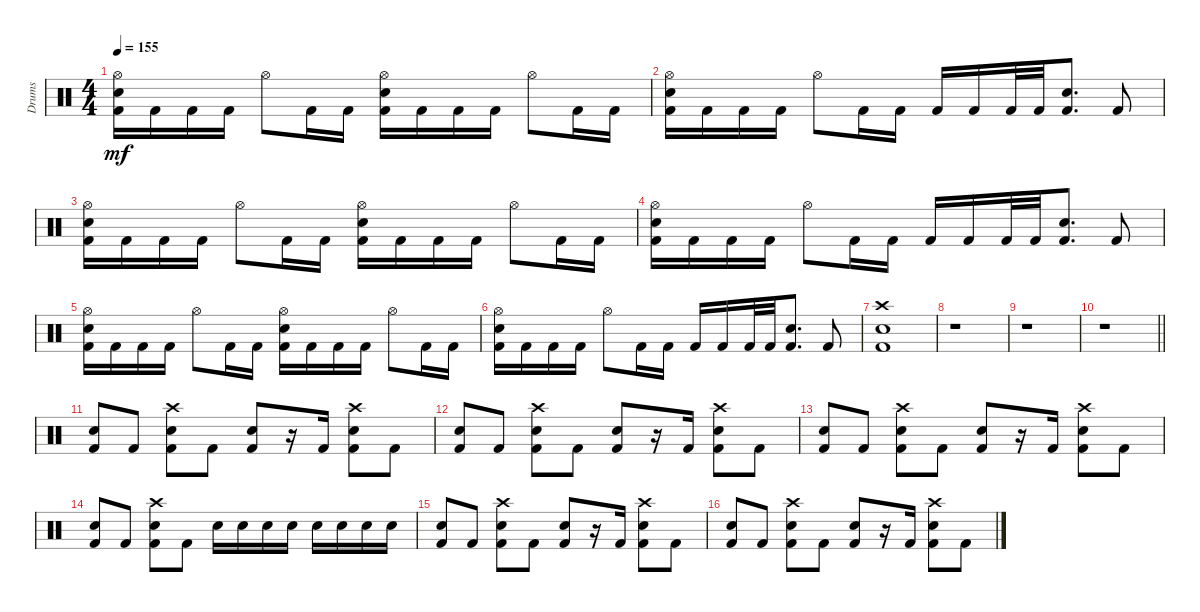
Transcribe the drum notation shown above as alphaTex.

\track ("Drums" "Drums") {instrument percussion}
\staff {score}
\articulation defaults
\ts (4 4)
\tempo 155
\clef neutral
\ks c
("Kick (hit) 2" "Electric Snare (hit)" "Hi-Hat (open)").16{dy mf} "Kick (hit) 2".16 "Kick (hit) 2".16 "Kick (hit) 2".16 "Hi-Hat (open)".8 "Kick (hit) 2".16 "Kick (hit) 2".16 ("Kick (hit) 2" "Electric Snare (hit)" "Hi-Hat (open)").16 "Kick (hit) 2".16 "Kick (hit) 2".16 "Kick (hit) 2".16 "Hi-Hat (open)".8 "Kick (hit) 2".16 "Kick (hit) 2".16 |
("Kick (hit) 2" "Electric Snare (hit)" "Hi-Hat (open)").16 "Kick (hit) 2".16 "Kick (hit) 2".16 "Kick (hit) 2".16 "Hi-Hat (open)".8 "Kick (hit) 2".16 "Kick (hit) 2".16 "Kick (hit) 2".16 "Kick (hit) 2".16 "Kick (hit) 2".32 "Kick (hit) 2".32 ("Kick (hit) 2" "Electric Snare (hit)").8{d} "Kick (hit) 2".8 |
("Kick (hit) 2" "Electric Snare (hit)" "Hi-Hat (open)").16 "Kick (hit) 2".16 "Kick (hit) 2".16 "Kick (hit) 2".16 "Hi-Hat (open)".8 "Kick (hit) 2".16 "Kick (hit) 2".16 ("Kick (hit) 2" "Electric Snare (hit)" "Hi-Hat (open)").16 "Kick (hit) 2".16 "Kick (hit) 2".16 "Kick (hit) 2".16 "Hi-Hat (open)".8 "Kick (hit) 2".16 "Kick (hit) 2".16 |
("Kick (hit) 2" "Electric Snare (hit)" "Hi-Hat (open)").16 "Kick (hit) 2".16 "Kick (hit) 2".16 "Kick (hit) 2".16 "Hi-Hat (open)".8 "Kick (hit) 2".16 "Kick (hit) 2".16 "Kick (hit) 2".16 "Kick (hit) 2".16 "Kick (hit) 2".32 "Kick (hit) 2".32 ("Kick (hit) 2" "Electric Snare (hit)").8{d} "Kick (hit) 2".8 |
("Kick (hit) 2" "Electric Snare (hit)" "Hi-Hat (open)").16 "Kick (hit) 2".16 "Kick (hit) 2".16 "Kick (hit) 2".16 "Hi-Hat (open)".8 "Kick (hit) 2".16 "Kick (hit) 2".16 ("Kick (hit) 2" "Electric Snare (hit)" "Hi-Hat (open)").16 "Kick (hit) 2".16 "Kick (hit) 2".16 "Kick (hit) 2".16 "Hi-Hat (open)".8 "Kick (hit) 2".16 "Kick (hit) 2".16 |
("Kick (hit) 2" "Electric Snare (hit)" "Hi-Hat (open)").16 "Kick (hit) 2".16 "Kick (hit) 2".16 "Kick (hit) 2".16 "Hi-Hat (open)".8 "Kick (hit) 2".16 "Kick (hit) 2".16 "Kick (hit) 2".16 "Kick (hit) 2".16 "Kick (hit) 2".32 "Kick (hit) 2".32 ("Kick (hit) 2" "Electric Snare (hit)").8{d} "Kick (hit) 2".8 |
("Electric Snare (hit)" "Kick (hit) 2" "Crash high (hit)").1 |
r.1 |
r.1 |
\barLineRight lightlight
r.1 |
\section ("" "")
("Kick (hit) 2" "Electric Snare (hit)").8 "Kick (hit) 2".8 ("Kick (hit) 2" "Electric Snare (hit)" "Crash high (hit)").8 "Kick (hit) 2".8 ("Kick (hit) 2" "Electric Snare (hit)").8 r.16 "Kick (hit) 2".16 ("Kick (hit) 2" "Electric Snare (hit)" "Crash high (hit)").8 "Kick (hit) 2".8 |
("Kick (hit) 2" "Electric Snare (hit)").8 "Kick (hit) 2".8 ("Kick (hit) 2" "Electric Snare (hit)" "Crash high (hit)").8 "Kick (hit) 2".8 ("Kick (hit) 2" "Electric Snare (hit)").8 r.16 "Kick (hit) 2".16 ("Kick (hit) 2" "Electric Snare (hit)" "Crash high (hit)").8 "Kick (hit) 2".8 |
("Kick (hit) 2" "Electric Snare (hit)").8 "Kick (hit) 2".8 ("Kick (hit) 2" "Electric Snare (hit)" "Crash high (hit)").8 "Kick (hit) 2".8 ("Kick (hit) 2" "Electric Snare (hit)").8 r.16 "Kick (hit) 2".16 ("Kick (hit) 2" "Electric Snare (hit)" "Crash high (hit)").8 "Kick (hit) 2".8 |
("Kick (hit) 2" "Electric Snare (hit)").8 "Kick (hit) 2".8 ("Kick (hit) 2" "Electric Snare (hit)" "Crash high (hit)").8 "Kick (hit) 2".8 "Electric Snare (hit)".16 "Electric Snare (hit)".16 "Electric Snare (hit)".16 "Electric Snare (hit)".16 "Electric Snare (hit)".16 "Electric Snare (hit)".16 "Electric Snare (hit)".16 "Electric Snare (hit)".16 |
("Kick (hit) 2" "Electric Snare (hit)").8 "Kick (hit) 2".8 ("Kick (hit) 2" "Electric Snare (hit)" "Crash high (hit)").8 "Kick (hit) 2".8 ("Kick (hit) 2" "Electric Snare (hit)").8 r.16 "Kick (hit) 2".16 ("Kick (hit) 2" "Electric Snare (hit)" "Crash high (hit)").8 "Kick (hit) 2".8 |
("Kick (hit) 2" "Electric Snare (hit)").8 "Kick (hit) 2".8 ("Kick (hit) 2" "Electric Snare (hit)" "Crash high (hit)").8 "Kick (hit) 2".8 ("Kick (hit) 2" "Electric Snare (hit)").8 r.16 "Kick (hit) 2".16 ("Kick (hit) 2" "Electric Snare (hit)" "Crash high (hit)").8 "Kick (hit) 2".8
